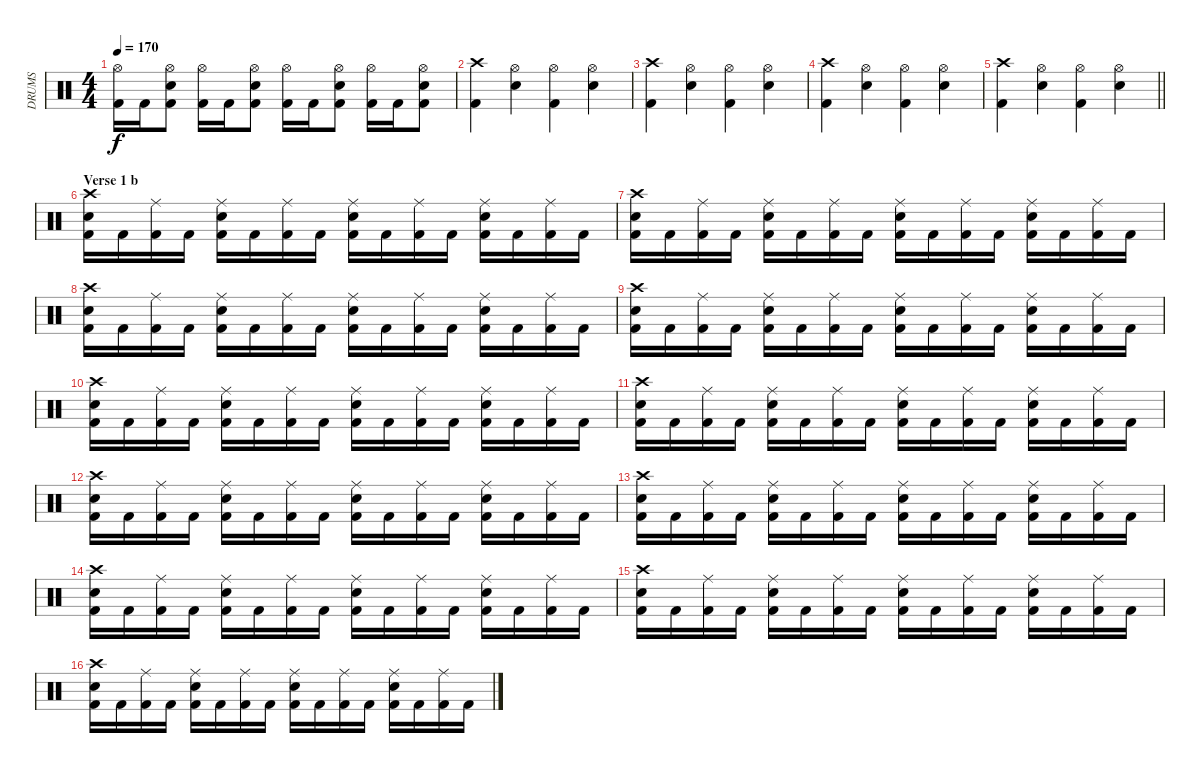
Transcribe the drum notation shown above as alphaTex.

\track ("DRUMS" "DRUMS") {instrument percussion}
\staff {score}
\articulation defaults
\ts (4 4)
\tempo 170
\clef neutral
\ks c
("Hi-Hat (open)" "Kick (hit) 2").16{dy f} "Kick (hit) 2".16 ("Hi-Hat (open)" "Snare (hit) 2" "Kick (hit) 2").8 ("Hi-Hat (open)" "Kick (hit) 2").16 "Kick (hit) 2".16 ("Hi-Hat (open)" "Snare (hit) 2" "Kick (hit) 2").8 ("Hi-Hat (open)" "Kick (hit) 2").16 "Kick (hit) 2".16 ("Hi-Hat (open)" "Snare (hit) 2" "Kick (hit) 2").8 ("Hi-Hat (open)" "Kick (hit) 2").16 "Kick (hit) 2".16 ("Hi-Hat (open)" "Snare (hit) 2" "Kick (hit) 2").8 |
("Crash high (hit)" "Kick (hit) 2").4 ("Snare (hit) 2" "Hi-Hat (open)").4 ("Kick (hit) 2" "Hi-Hat (open)").4 ("Snare (hit) 2" "Hi-Hat (open)").4 |
("Crash high (hit)" "Kick (hit) 2").4 ("Snare (hit) 2" "Hi-Hat (open)").4 ("Kick (hit) 2" "Hi-Hat (open)").4 ("Snare (hit) 2" "Hi-Hat (open)").4 |
("Crash high (hit)" "Kick (hit) 2").4 ("Snare (hit) 2" "Hi-Hat (open)").4 ("Kick (hit) 2" "Hi-Hat (open)").4 ("Snare (hit) 2" "Hi-Hat (open)").4 |
\barLineRight lightlight
("Crash high (hit)" "Kick (hit) 2").4 ("Snare (hit) 2" "Hi-Hat (open)").4 ("Kick (hit) 2" "Hi-Hat (open)").4 ("Snare (hit) 2" "Hi-Hat (open)").4 |
\section ("" "Verse 1 b")
("Kick (hit) 2" "Snare (hit) 2" "Crash high (hit)").16 "Kick (hit) 2".16 ("Kick (hit) 2" "Ride (middle)").16 "Kick (hit) 2".16 ("Kick (hit) 2" "Snare (hit) 2" "Ride (middle)").16 "Kick (hit) 2".16 ("Kick (hit) 2" "Ride (middle)").16 "Kick (hit) 2".16 ("Kick (hit) 2" "Snare (hit) 2" "Ride (middle)").16 "Kick (hit) 2".16 ("Kick (hit) 2" "Ride (middle)").16 "Kick (hit) 2".16 ("Kick (hit) 2" "Snare (hit) 2" "Ride (middle)").16 "Kick (hit) 2".16 ("Kick (hit) 2" "Ride (middle)").16 "Kick (hit) 2".16 |
("Kick (hit) 2" "Snare (hit) 2" "Crash high (hit)").16 "Kick (hit) 2".16 ("Kick (hit) 2" "Ride (middle)").16 "Kick (hit) 2".16 ("Kick (hit) 2" "Snare (hit) 2" "Ride (middle)").16 "Kick (hit) 2".16 ("Kick (hit) 2" "Ride (middle)").16 "Kick (hit) 2".16 ("Kick (hit) 2" "Snare (hit) 2" "Ride (middle)").16 "Kick (hit) 2".16 ("Kick (hit) 2" "Ride (middle)").16 "Kick (hit) 2".16 ("Kick (hit) 2" "Snare (hit) 2" "Ride (middle)").16 "Kick (hit) 2".16 ("Kick (hit) 2" "Ride (middle)").16 "Kick (hit) 2".16 |
("Kick (hit) 2" "Snare (hit) 2" "Crash high (hit)").16 "Kick (hit) 2".16 ("Kick (hit) 2" "Ride (middle)").16 "Kick (hit) 2".16 ("Kick (hit) 2" "Snare (hit) 2" "Ride (middle)").16 "Kick (hit) 2".16 ("Kick (hit) 2" "Ride (middle)").16 "Kick (hit) 2".16 ("Kick (hit) 2" "Snare (hit) 2" "Ride (middle)").16 "Kick (hit) 2".16 ("Kick (hit) 2" "Ride (middle)").16 "Kick (hit) 2".16 ("Kick (hit) 2" "Snare (hit) 2" "Ride (middle)").16 "Kick (hit) 2".16 ("Kick (hit) 2" "Ride (middle)").16 "Kick (hit) 2".16 |
("Kick (hit) 2" "Snare (hit) 2" "Crash high (hit)").16 "Kick (hit) 2".16 ("Kick (hit) 2" "Ride (middle)").16 "Kick (hit) 2".16 ("Kick (hit) 2" "Snare (hit) 2" "Ride (middle)").16 "Kick (hit) 2".16 ("Kick (hit) 2" "Ride (middle)").16 "Kick (hit) 2".16 ("Kick (hit) 2" "Snare (hit) 2" "Ride (middle)").16 "Kick (hit) 2".16 ("Kick (hit) 2" "Ride (middle)").16 "Kick (hit) 2".16 ("Kick (hit) 2" "Snare (hit) 2" "Ride (middle)").16 "Kick (hit) 2".16 ("Kick (hit) 2" "Ride (middle)").16 "Kick (hit) 2".16 |
("Kick (hit) 2" "Snare (hit) 2" "Crash high (hit)").16 "Kick (hit) 2".16 ("Kick (hit) 2" "Ride (middle)").16 "Kick (hit) 2".16 ("Kick (hit) 2" "Snare (hit) 2" "Ride (middle)").16 "Kick (hit) 2".16 ("Kick (hit) 2" "Ride (middle)").16 "Kick (hit) 2".16 ("Kick (hit) 2" "Snare (hit) 2" "Ride (middle)").16 "Kick (hit) 2".16 ("Kick (hit) 2" "Ride (middle)").16 "Kick (hit) 2".16 ("Kick (hit) 2" "Snare (hit) 2" "Ride (middle)").16 "Kick (hit) 2".16 ("Kick (hit) 2" "Ride (middle)").16 "Kick (hit) 2".16 |
("Kick (hit) 2" "Snare (hit) 2" "Crash high (hit)").16 "Kick (hit) 2".16 ("Kick (hit) 2" "Ride (middle)").16 "Kick (hit) 2".16 ("Kick (hit) 2" "Snare (hit) 2" "Ride (middle)").16 "Kick (hit) 2".16 ("Kick (hit) 2" "Ride (middle)").16 "Kick (hit) 2".16 ("Kick (hit) 2" "Snare (hit) 2" "Ride (middle)").16 "Kick (hit) 2".16 ("Kick (hit) 2" "Ride (middle)").16 "Kick (hit) 2".16 ("Kick (hit) 2" "Snare (hit) 2" "Ride (middle)").16 "Kick (hit) 2".16 ("Kick (hit) 2" "Ride (middle)").16 "Kick (hit) 2".16 |
("Kick (hit) 2" "Snare (hit) 2" "Crash high (hit)").16 "Kick (hit) 2".16 ("Kick (hit) 2" "Ride (middle)").16 "Kick (hit) 2".16 ("Kick (hit) 2" "Snare (hit) 2" "Ride (middle)").16 "Kick (hit) 2".16 ("Kick (hit) 2" "Ride (middle)").16 "Kick (hit) 2".16 ("Kick (hit) 2" "Snare (hit) 2" "Ride (middle)").16 "Kick (hit) 2".16 ("Kick (hit) 2" "Ride (middle)").16 "Kick (hit) 2".16 ("Kick (hit) 2" "Snare (hit) 2" "Ride (middle)").16 "Kick (hit) 2".16 ("Kick (hit) 2" "Ride (middle)").16 "Kick (hit) 2".16 |
("Kick (hit) 2" "Snare (hit) 2" "Crash high (hit)").16 "Kick (hit) 2".16 ("Kick (hit) 2" "Ride (middle)").16 "Kick (hit) 2".16 ("Kick (hit) 2" "Snare (hit) 2" "Ride (middle)").16 "Kick (hit) 2".16 ("Kick (hit) 2" "Ride (middle)").16 "Kick (hit) 2".16 ("Kick (hit) 2" "Snare (hit) 2" "Ride (middle)").16 "Kick (hit) 2".16 ("Kick (hit) 2" "Ride (middle)").16 "Kick (hit) 2".16 ("Kick (hit) 2" "Snare (hit) 2" "Ride (middle)").16 "Kick (hit) 2".16 ("Kick (hit) 2" "Ride (middle)").16 "Kick (hit) 2".16 |
("Kick (hit) 2" "Snare (hit) 2" "Crash high (hit)").16 "Kick (hit) 2".16 ("Kick (hit) 2" "Ride (middle)").16 "Kick (hit) 2".16 ("Kick (hit) 2" "Snare (hit) 2" "Ride (middle)").16 "Kick (hit) 2".16 ("Kick (hit) 2" "Ride (middle)").16 "Kick (hit) 2".16 ("Kick (hit) 2" "Snare (hit) 2" "Ride (middle)").16 "Kick (hit) 2".16 ("Kick (hit) 2" "Ride (middle)").16 "Kick (hit) 2".16 ("Kick (hit) 2" "Snare (hit) 2" "Ride (middle)").16 "Kick (hit) 2".16 ("Kick (hit) 2" "Ride (middle)").16 "Kick (hit) 2".16 |
("Kick (hit) 2" "Snare (hit) 2" "Crash high (hit)").16 "Kick (hit) 2".16 ("Kick (hit) 2" "Ride (middle)").16 "Kick (hit) 2".16 ("Kick (hit) 2" "Snare (hit) 2" "Ride (middle)").16 "Kick (hit) 2".16 ("Kick (hit) 2" "Ride (middle)").16 "Kick (hit) 2".16 ("Kick (hit) 2" "Snare (hit) 2" "Ride (middle)").16 "Kick (hit) 2".16 ("Kick (hit) 2" "Ride (middle)").16 "Kick (hit) 2".16 ("Kick (hit) 2" "Snare (hit) 2" "Ride (middle)").16 "Kick (hit) 2".16 ("Kick (hit) 2" "Ride (middle)").16 "Kick (hit) 2".16 |
("Kick (hit) 2" "Snare (hit) 2" "Crash high (hit)").16 "Kick (hit) 2".16 ("Kick (hit) 2" "Ride (middle)").16 "Kick (hit) 2".16 ("Kick (hit) 2" "Snare (hit) 2" "Ride (middle)").16 "Kick (hit) 2".16 ("Kick (hit) 2" "Ride (middle)").16 "Kick (hit) 2".16 ("Kick (hit) 2" "Snare (hit) 2" "Ride (middle)").16 "Kick (hit) 2".16 ("Kick (hit) 2" "Ride (middle)").16 "Kick (hit) 2".16 ("Kick (hit) 2" "Snare (hit) 2" "Ride (middle)").16 "Kick (hit) 2".16 ("Kick (hit) 2" "Ride (middle)").16 "Kick (hit) 2".16
